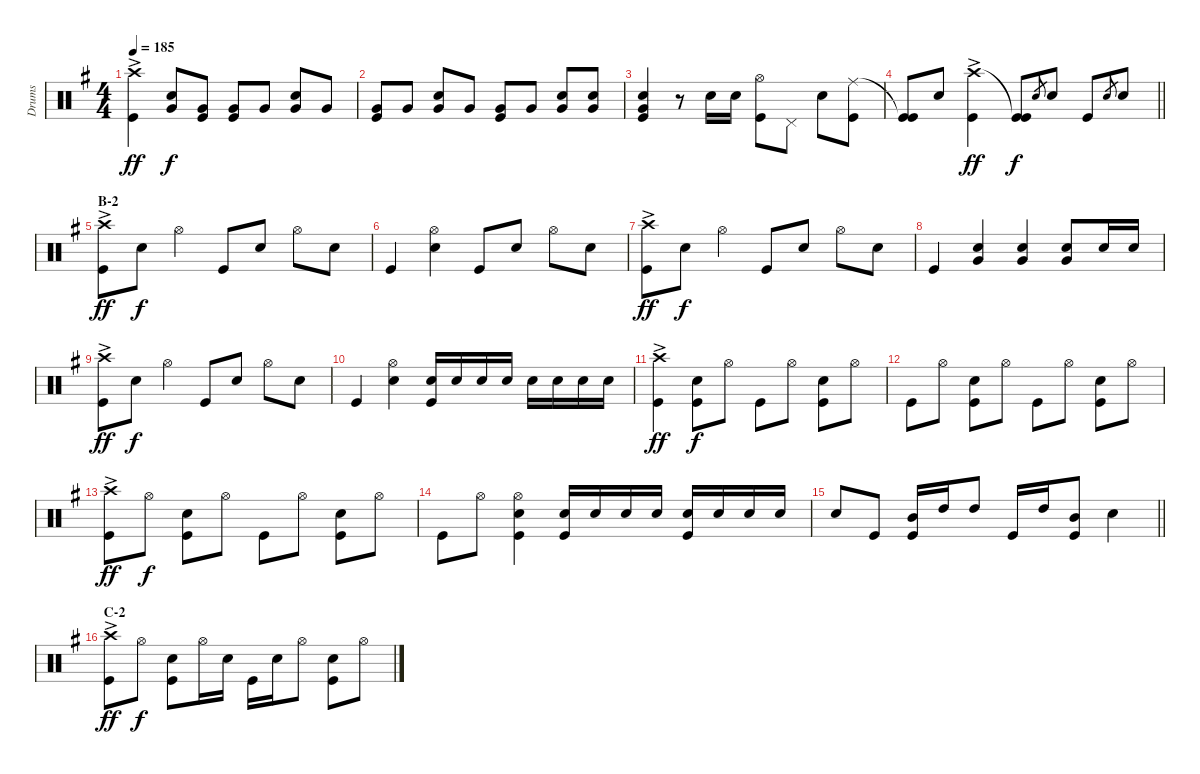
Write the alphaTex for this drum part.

\track ("Drums" "Drums") {instrument percussion}
\staff {score}
\articulation defaults
\ts (4 4)
\tempo 185
\clef neutral
\ks g
("Crash high (hit)"{ac} "Kick (hit)").4{dy ff} ("Snare (hit) 2" "Very Low Tom (hit)").8{dy f} ("Very Low Tom (hit)" "Kick (hit)").8 ("Very Low Tom (hit)" "Kick (hit)").8 "Very Low Tom (hit)".8 ("Snare (hit) 2" "Very Low Tom (hit)").8 "Very Low Tom (hit)".8 |
("Very Low Tom (hit)" "Kick (hit)").8 "Very Low Tom (hit)".8 ("Snare (hit) 2" "Very Low Tom (hit)").8 "Very Low Tom (hit)".8 ("Very Low Tom (hit)" "Kick (hit)").8 "Very Low Tom (hit)".8 ("Snare (hit) 2" "Very Low Tom (hit)").8 ("Snare (hit) 2" "Very Low Tom (hit)").8 |
("Snare (hit) 2" "Very Low Tom (hit)" "Kick (hit)").4 r.8 "Snare (hit) 2".16 "Snare (hit) 2".16 ("Kick (hit)" "Hi-Hat (open)").8 "Pedal Hi-Hat (hit)".8 "Snare (hit) 2".8 ("Ride (middle)" "Kick (hit)").8 |
\barLineRight lightlight
("Kick (hit)"{t} "Kick (hit)").8 "Snare (hit) 2".8 ("Crash high (hit)"{ac} "Kick (hit)").4{dy ff} ("Kick (hit)"{t} "Kick (hit)").8{dy f} "Snare (hit) 2".8{gr} "Snare (hit) 2".8 "Kick (hit)".8 "Snare (hit) 2".8{gr} "Snare (hit) 2".8 |
\section ("" "B-2")
("Crash high (hit)"{ac} "Kick (hit)").8{dy ff} "Snare (hit) 2".8{dy f} "Hi-Hat (open)".4 "Kick (hit)".8 "Snare (hit) 2".8 "Hi-Hat (open)".8 "Snare (hit) 2".8 |
"Kick (hit)".4 ("Hi-Hat (open)" "Snare (hit) 2").4 "Kick (hit)".8 "Snare (hit) 2".8 "Hi-Hat (open)".8 "Snare (hit) 2".8 |
("Crash high (hit)"{ac} "Kick (hit)").8{dy ff} "Snare (hit) 2".8{dy f} "Hi-Hat (open)".4 "Kick (hit)".8 "Snare (hit) 2".8 "Hi-Hat (open)".8 "Snare (hit) 2".8 |
"Kick (hit)".4 ("Snare (hit) 2" "Very Low Tom (hit)").4 ("Snare (hit) 2" "Very Low Tom (hit)").4 ("Snare (hit) 2" "Very Low Tom (hit)").8 "Snare (hit) 2".16 "Snare (hit) 2".16 |
("Crash high (hit)"{ac} "Kick (hit)").8{dy ff} "Snare (hit) 2".8{dy f} "Hi-Hat (open)".4 "Kick (hit)".8 "Snare (hit) 2".8 "Hi-Hat (open)".8 "Snare (hit) 2".8 |
"Kick (hit)".4 ("Hi-Hat (open)" "Snare (hit) 2").4 ("Kick (hit)" "Snare (hit) 2").16 "Snare (hit) 2".16 "Snare (hit) 2".16 "Snare (hit) 2".16 "Snare (hit) 2".16 "Snare (hit) 2".16 "Snare (hit) 2".16 "Snare (hit) 2".16 |
("Crash high (hit)"{ac} "Kick (hit)").4{dy ff} ("Snare (hit) 2" "Kick (hit)").8{dy f} "Hi-Hat (open)".8 "Kick (hit)".8 "Hi-Hat (open)".8 ("Snare (hit) 2" "Kick (hit)").8 "Hi-Hat (open)".8 |
"Kick (hit)".8 "Hi-Hat (open)".8 ("Snare (hit) 2" "Kick (hit)").8 "Hi-Hat (open)".8 "Kick (hit)".8 "Hi-Hat (open)".8 ("Snare (hit) 2" "Kick (hit)").8 "Hi-Hat (open)".8 |
("Crash high (hit)"{ac} "Kick (hit)").8{dy ff} "Hi-Hat (open)".8{dy f} ("Snare (hit) 2" "Kick (hit)").8 "Hi-Hat (open)".8 "Kick (hit)".8 "Hi-Hat (open)".8 ("Snare (hit) 2" "Kick (hit)").8 "Hi-Hat (open)".8 |
"Kick (hit)".8 "Hi-Hat (open)".8 ("Hi-Hat (open)" "Snare (hit) 2" "Kick (hit)").4 ("Kick (hit)" "Snare (hit) 2").16 "Snare (hit) 2".16 "Snare (hit) 2".16 "Snare (hit) 2".16 ("Kick (hit)" "Snare (hit) 2").16 "Snare (hit) 2".16 "Snare (hit) 2".16 "Snare (hit) 2".16 |
\barLineRight lightlight "Snare (hit) 2".8 "Kick (hit)".8
("Mid Tom (hit)" "Kick (hit)").16 "High Tom (hit)".16 "High Tom (hit)".8 "Kick (hit)".16 "High Tom (hit)".16 ("Mid Tom (hit)" "Kick (hit)").8 "Snare (hit) 2".4 |
\section ("" "C-2")
("Crash high (hit)"{ac} "Kick (hit)").8{dy ff} "Hi-Hat (open)".8{dy f} ("Snare (hit) 2" "Kick (hit)").8 "Hi-Hat (open)".16 "Snare (hit) 2".16 "Kick (hit)".16 "Snare (hit) 2".16 "Hi-Hat (open)".8 ("Snare (hit) 2" "Kick (hit)").8 "Hi-Hat (open)".8
